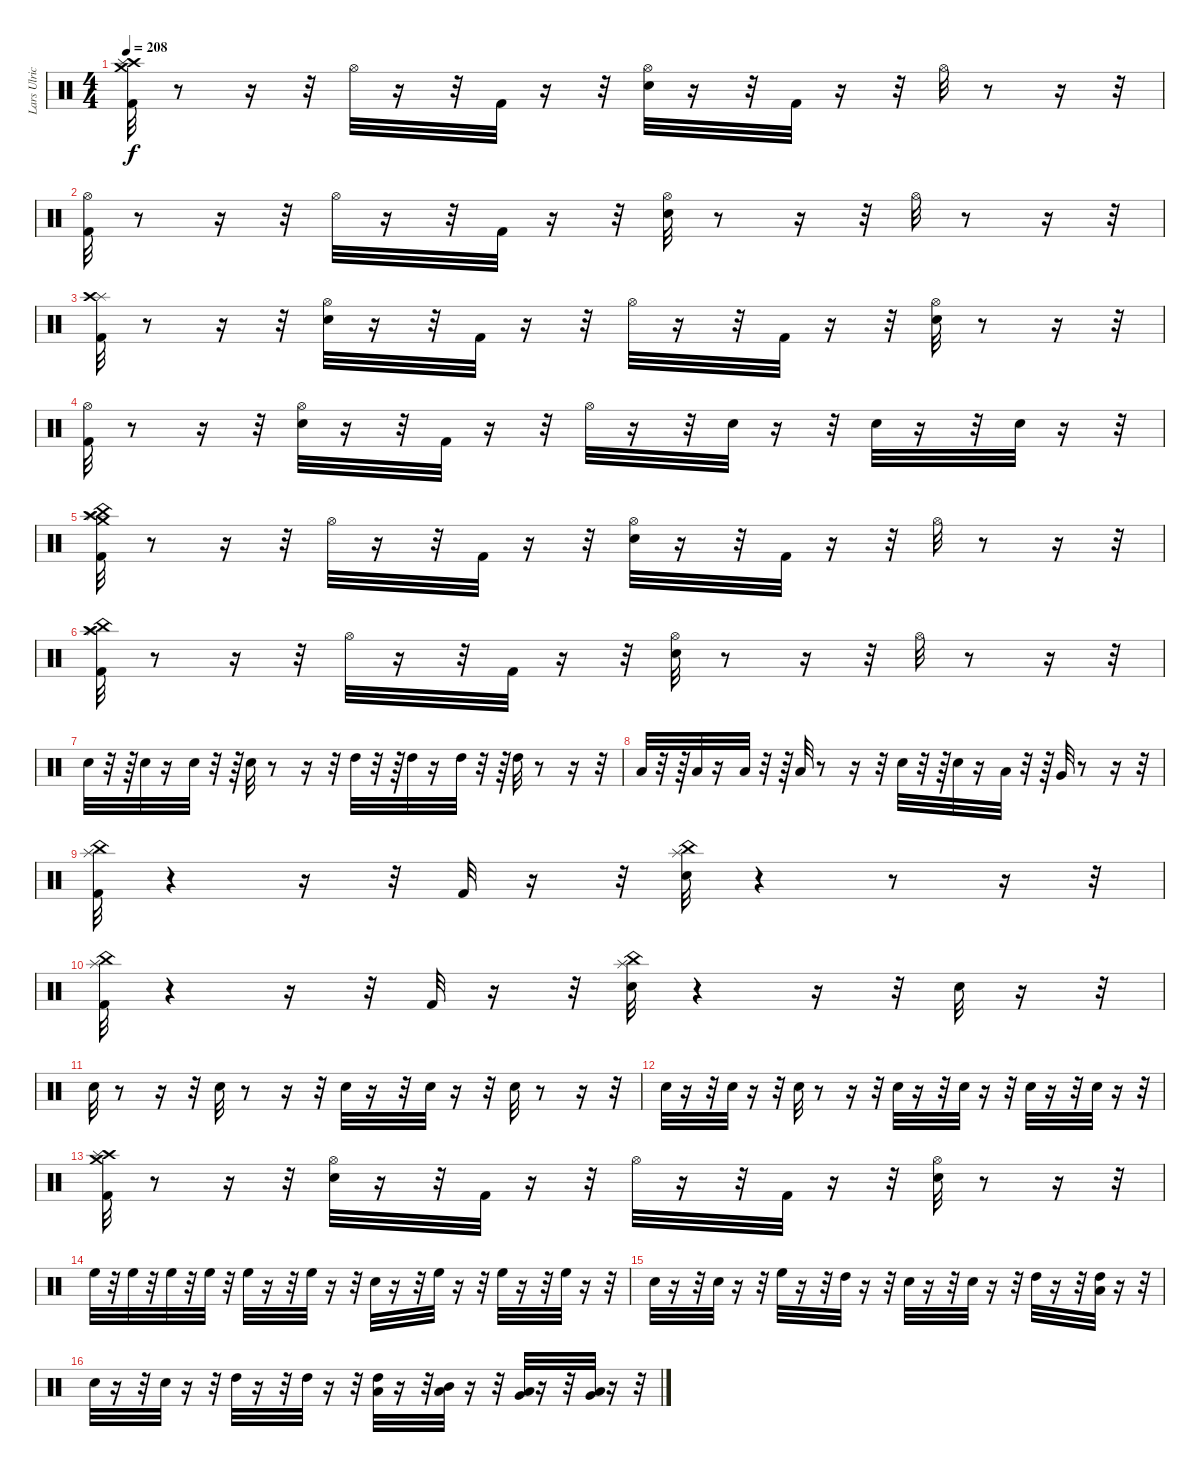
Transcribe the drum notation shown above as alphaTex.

\track ("Lars Ulrich (Drums)" "Lars Ulric") {instrument percussion}
\staff {score}
\articulation defaults
\ts (4 4)
\tempo 208
\clef neutral
\ks c
("Crash high (hit)" "Crash medium (hit)" "Splash (hit)" "Kick (hit) 2").32{dy f} r.8 r.16 r.32 "Hi-Hat (open)".32 r.16 r.32 "Kick (hit) 2".32 r.16 r.32 ("Hi-Hat (open)" "Snare (hit) 2").32 r.16 r.32 "Kick (hit) 2".32 r.16 r.32 "Hi-Hat (open)".32 r.8 r.16 r.32 |
("Hi-Hat (open)" "Kick (hit) 2").32 r.8 r.16 r.32 "Hi-Hat (open)".32 r.16 r.32 "Kick (hit) 2".32 r.16 r.32 ("Hi-Hat (open)" "Snare (hit) 2").32 r.8 r.16 r.32 "Hi-Hat (open)".32 r.8 r.16 r.32 |
("Splash (hit)" "Crash high (hit)" "Kick (hit) 2").32 r.8 r.16 r.32 ("Snare (hit) 2" "Hi-Hat (open)").32 r.16 r.32 "Kick (hit) 2".32 r.16 r.32 "Hi-Hat (open)".32 r.16 r.32 "Kick (hit) 2".32 r.16 r.32 ("Snare (hit) 2" "Hi-Hat (open)").32 r.8 r.16 r.32 |
("Kick (hit) 2" "Hi-Hat (open)").32 r.8 r.16 r.32 ("Snare (hit) 2" "Hi-Hat (open)").32 r.16 r.32 "Kick (hit) 2".32 r.16 r.32 "Hi-Hat (open)".32 r.16 r.32 "Snare (hit) 2".32 r.16 r.32 "Snare (hit) 2".32 r.16 r.32 "Snare (hit) 2".32 r.16 r.32 |
("China (hit)" "Kick (hit) 2" "Crash high (hit)" "Splash (hit)" "Crash medium (hit)").32 r.8 r.16 r.32 "Hi-Hat (open)".32 r.16 r.32 "Kick (hit) 2".32 r.16 r.32 ("Hi-Hat (open)" "Snare (hit) 2").32 r.16 r.32 "Kick (hit) 2".32 r.16 r.32 "Hi-Hat (open)".32 r.8 r.16 r.32 |
("China (hit)" "Splash (hit)" "Crash high (hit)" "Kick (hit) 2").32 r.8 r.16 r.32 "Hi-Hat (open)".32 r.16 r.32 "Kick (hit) 2".32 r.16 r.32 ("Snare (hit) 2" "Hi-Hat (open)").32 r.8 r.16 r.32 "Hi-Hat (open)".32 r.8 r.16 r.32 |
"Snare (hit) 2".32 r.32 r.64 "Snare (hit) 2".32 r.16 "Snare (hit) 2".32 r.32 r.64 "Snare (hit) 2".32 r.8 r.16 r.32 "High Tom (hit)".32 r.32 r.64 "High Tom (hit)".32 r.16 "High Tom (hit)".32 r.32 r.64 "High Tom (hit)".32 r.8 r.16 r.32 |
"Low Tom (hit)".32 r.32 r.64 "Low Tom (hit)".32 r.16 "Low Tom (hit)".32 r.32 r.64 "Low Tom (hit)".32 r.8 r.16 r.32 "Snare (hit) 2".32 r.32 r.64 "Snare (hit) 2".32 r.16 "Low Tom (hit)".32 r.32 r.64 "Very Low Tom (hit)".32 r.8 r.16 r.32 |
("Kick (hit) 2" "China (hit)" "Splash (hit)").32 r.4 r.16 r.32 "Kick (hit) 2".32 r.16 r.32 ("Snare (hit) 2" "China (hit)" "Splash (hit)").32 r.4 r.8 r.16 r.32 |
("Kick (hit) 2" "China (hit)" "Splash (hit)").32 r.4 r.16 r.32 "Kick (hit) 2".32 r.16 r.32 ("Snare (hit) 2" "China (hit)" "Splash (hit)").32 r.4 r.16 r.32 "Snare (hit) 2".32 r.16 r.32 |
"Snare (hit) 2".32 r.8 r.16 r.32 "Snare (hit) 2".32 r.8 r.16 r.32 "Snare (hit) 2".32 r.16 r.32 "Snare (hit) 2".32 r.16 r.32 "Snare (hit) 2".32 r.8 r.16 r.32 |
"Snare (hit) 2".32 r.16 r.32 "Snare (hit) 2".32 r.16 r.32 "Snare (hit) 2".32 r.8 r.16 r.32 "Snare (hit) 2".32 r.16 r.32 "Snare (hit) 2".32 r.16 r.32 "Snare (hit) 2".32 r.16 r.32 "Snare (hit) 2".32 r.16 r.32 |
("Kick (hit) 2" "Crash high (hit)" "Crash medium (hit)" "Splash (hit)").32 r.8 r.16 r.32 ("Snare (hit) 2" "Hi-Hat (open)").32 r.16 r.32 "Kick (hit) 2".32 r.16 r.32 "Hi-Hat (open)".32 r.16 r.32 "Kick (hit) 2".32 r.16 r.32 ("Snare (hit) 2" "Hi-Hat (open)").32 r.8 r.16 r.32 |
"High Floor Tom (hit)".32 r.32 "High Floor Tom (hit)".32 r.32 "High Floor Tom (hit)".32 r.32 "High Floor Tom (hit)".32 r.32 "High Floor Tom (hit)".32 r.16 r.32 "High Floor Tom (hit)".32 r.16 r.32 "Snare (hit) 2".32 r.16 r.32 "High Floor Tom (hit)".32 r.16 r.32 "High Floor Tom (hit)".32 r.16 r.32 "High Floor Tom (hit)".32 r.16 r.32 |
"Snare (hit) 2".32 r.16 r.32 "Snare (hit) 2".32 r.16 r.32 "High Floor Tom (hit)".32 r.16 r.32 "High Tom (hit)".32 r.16 r.32 "Snare (hit) 2".32 r.16 r.32 "Snare (hit) 2".32 r.16 r.32 "High Tom (hit)".32 r.16 r.32 ("Low Tom (hit)" "High Tom (hit)").32 r.16 r.32 |
"Snare (hit) 2".32 r.16 r.32 "Snare (hit) 2".32 r.16 r.32 "High Tom (hit)".32 r.16 r.32 "High Tom (hit)".32 r.16 r.32 ("Low Tom (hit)" "High Tom (hit)").32 r.16 r.32 ("Low Tom (hit)" "Mid Tom (hit)").32 r.16 r.32 ("Low Tom (hit)" "Very Low Tom (hit)").32 r.16 r.32 ("Low Floor Tom (hit)" "Very Low Tom (hit)").32 r.16 r.32
